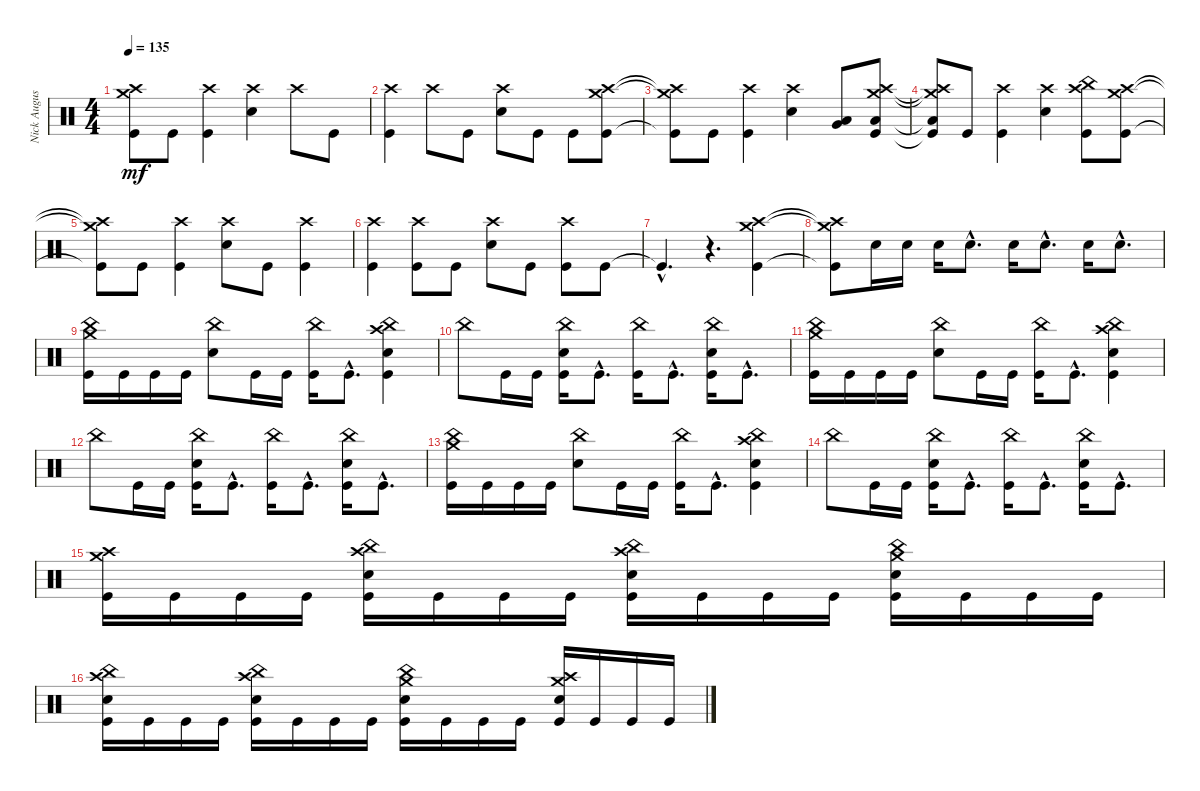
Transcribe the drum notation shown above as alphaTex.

\track ("Nick Augusto" "Nick Augus") {instrument percussion}
\staff {score}
\articulation defaults
\ts (4 4)
\tempo 135
\clef neutral
\ks c
("Kick (hit)"{t} "Crash high (hit)"{t} "Crash medium (hit)"{t}).8{dy mf} "Kick (hit)".8 ("Kick (hit)" "Crash high (hit)").4 ("Snare (hit) 2" "Crash high (hit)").4 "Crash high (hit)".8 "Kick (hit)".8 |
("Kick (hit)" "Crash high (hit)").4 "Crash high (hit)".8 "Kick (hit)".8 ("Snare (hit) 2" "Crash high (hit)").8 "Kick (hit)".8 "Kick (hit)".8 ("Kick (hit)" "Crash high (hit)" "Crash medium (hit)").8 |
("Kick (hit)"{t} "Crash high (hit)"{t} "Crash medium (hit)"{t}).8 "Kick (hit)".8 ("Kick (hit)" "Crash high (hit)").4 ("Snare (hit) 2" "Crash high (hit)").4 ("Very Low Tom (hit)" "Low Tom (hit)").8 ("Kick (hit)" "Low Floor Tom (hit)" "Crash high (hit)" "Crash medium (hit)").8 |
("Kick (hit)"{t} "Low Floor Tom (hit)"{t} "Crash high (hit)"{t} "Crash medium (hit)"{t}).8 "Kick (hit)".8 ("Kick (hit)" "Crash high (hit)").4 ("Snare (hit) 2" "Crash high (hit)").4 ("Kick (hit)" "China (hit)" "Crash high (hit)").8 ("Kick (hit)" "Crash high (hit)" "Crash medium (hit)").8 |
("Kick (hit)"{t} "Crash high (hit)"{t} "Crash medium (hit)"{t}).8 "Kick (hit)".8 ("Kick (hit)" "Crash high (hit)").4 ("Snare (hit) 2" "Crash high (hit)").8 "Kick (hit)".8 ("Kick (hit)" "Crash high (hit)").4 |
("Kick (hit)" "Crash high (hit)").4 ("Kick (hit)" "Crash high (hit)").8 "Kick (hit)".8 ("Snare (hit) 2" "Crash high (hit)").8 "Kick (hit)".8 ("Kick (hit)" "Crash high (hit)").8 "Kick (hit)".8 |
"Kick (hit)"{hac t}.4{d} r.4{d} ("Kick (hit)" "Crash high (hit)" "Crash medium (hit)").4 |
("Kick (hit)"{t} "Crash high (hit)"{t} "Crash medium (hit)"{t}).8 "Snare (hit) 2".16 "Snare (hit) 2".16 "Snare (hit) 2".16 "Snare (hit) 2"{hac}.8{d} "Snare (hit) 2".16 "Snare (hit) 2"{hac}.8{d} "Snare (hit) 2".16 "Snare (hit) 2"{hac}.8{d} |
("Kick (hit)" "China (hit)" "Crash medium (hit)").16 "Kick (hit)".16 "Kick (hit)".16 "Kick (hit)".16 ("Snare (hit) 2" "China (hit)").8 "Kick (hit)".16 "Kick (hit)".16 ("Kick (hit)" "China (hit)").16 "Kick (hit)"{hac}.8{d} ("Kick (hit)" "Snare (hit) 2" "China (hit)" "Crash high (hit)").4 |
"China (hit)".8 "Kick (hit)".16 "Kick (hit)".16 ("Kick (hit)" "Snare (hit) 2" "China (hit)").16 "Kick (hit)"{hac}.8{d} ("Kick (hit)" "China (hit)").16 "Kick (hit)"{hac}.8{d} ("Kick (hit)" "Snare (hit) 2" "China (hit)").16 "Kick (hit)"{hac}.8{d} |
("Kick (hit)" "China (hit)" "Crash medium (hit)").16 "Kick (hit)".16 "Kick (hit)".16 "Kick (hit)".16 ("Snare (hit) 2" "China (hit)").8 "Kick (hit)".16 "Kick (hit)".16 ("Kick (hit)" "China (hit)").16 "Kick (hit)"{hac}.8{d} ("Kick (hit)" "Snare (hit) 2" "China (hit)" "Crash high (hit)").4 |
"China (hit)".8 "Kick (hit)".16 "Kick (hit)".16 ("Kick (hit)" "Snare (hit) 2" "China (hit)").16 "Kick (hit)"{hac}.8{d} ("Kick (hit)" "China (hit)").16 "Kick (hit)"{hac}.8{d} ("Kick (hit)" "Snare (hit) 2" "China (hit)").16 "Kick (hit)"{hac}.8{d} |
("Kick (hit)" "China (hit)" "Crash medium (hit)").16 "Kick (hit)".16 "Kick (hit)".16 "Kick (hit)".16 ("Snare (hit) 2" "China (hit)").8 "Kick (hit)".16 "Kick (hit)".16 ("Kick (hit)" "China (hit)").16 "Kick (hit)"{hac}.8{d} ("Kick (hit)" "Snare (hit) 2" "China (hit)" "Crash high (hit)").4 |
"China (hit)".8 "Kick (hit)".16 "Kick (hit)".16 ("Kick (hit)" "Snare (hit) 2" "China (hit)").16 "Kick (hit)"{hac}.8{d} ("Kick (hit)" "China (hit)").16 "Kick (hit)"{hac}.8{d} ("Kick (hit)" "Snare (hit) 2" "China (hit)").16 "Kick (hit)"{hac}.8{d} |
("Kick (hit)" "Crash high (hit)" "Crash medium (hit)").16 "Kick (hit)".16 "Kick (hit)".16 "Kick (hit)".16 ("Kick (hit)" "Snare (hit) 2" "China (hit)" "Crash high (hit)").16 "Kick (hit)".16 "Kick (hit)".16 "Kick (hit)".16 ("Kick (hit)" "Snare (hit) 2" "China (hit)" "Crash high (hit)").16 "Kick (hit)".16 "Kick (hit)".16 "Kick (hit)".16 ("Kick (hit)" "Snare (hit) 2" "China (hit)" "Crash medium (hit)").16 "Kick (hit)".16 "Kick (hit)".16 "Kick (hit)".16 |
("Kick (hit)" "Snare (hit) 2" "China (hit)" "Crash high (hit)").16 "Kick (hit)".16 "Kick (hit)".16 "Kick (hit)".16 ("Kick (hit)" "Snare (hit) 2" "China (hit)" "Crash high (hit)").16 "Kick (hit)".16 "Kick (hit)".16 "Kick (hit)".16 ("Kick (hit)" "Snare (hit) 2" "China (hit)" "Crash medium (hit)").16 "Kick (hit)".16 "Kick (hit)".16 "Kick (hit)".16 ("Kick (hit)" "Snare (hit) 2" "Crash high (hit)" "Crash medium (hit)").16 "Kick (hit)".16 "Kick (hit)".16 "Kick (hit)".16
